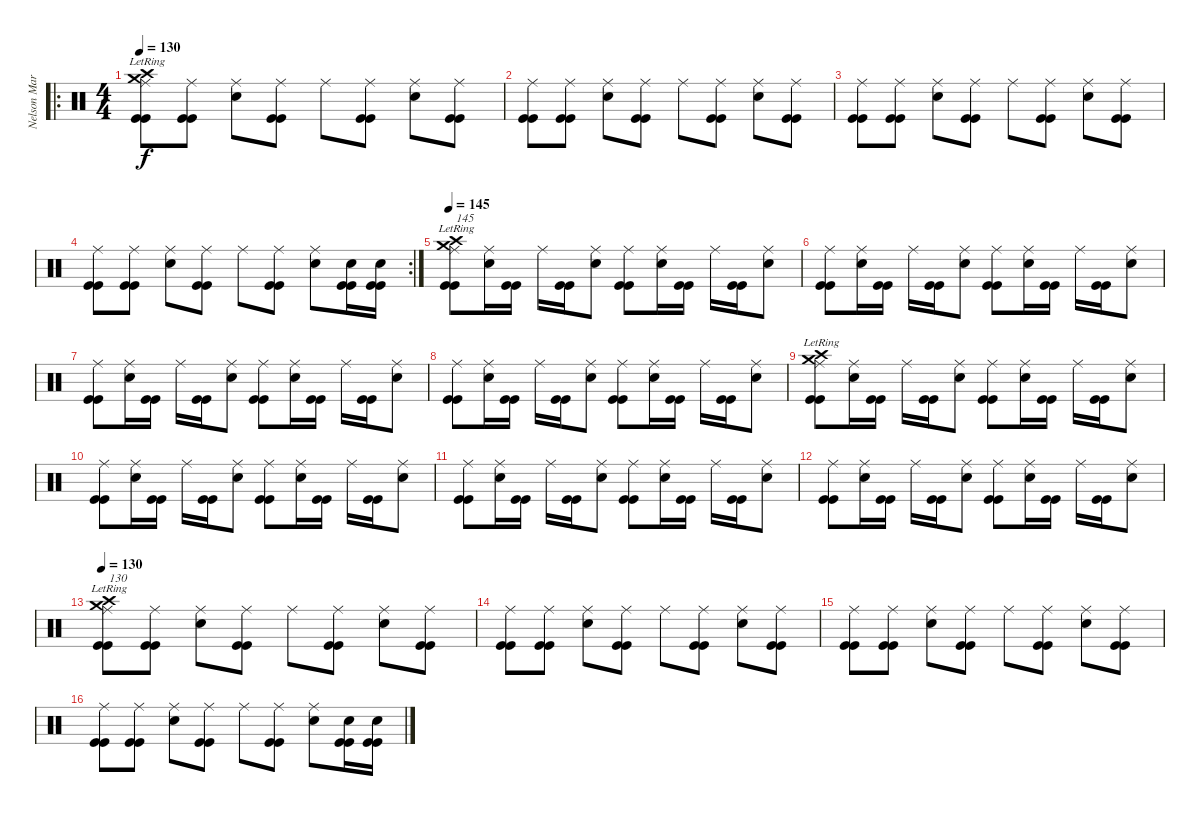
\track ("Nelson Maria" "Nelson Mar") {instrument percussion}
\staff {score}
\articulation defaults
\ro
\ts (4 4)
\tempo 130
\clef neutral
\ks c
("Crash high (hit)"{lr} "Crash medium (hit)"{lr} "Ride (middle)" "Kick (hit)" "Kick (hit)").8{dy f} ("Ride (middle)" "Kick (hit)" "Kick (hit)").8 ("Snare (hit) 2" "Ride (middle)").8 ("Ride (middle)" "Kick (hit)" "Kick (hit)").8 "Ride (middle)".8 ("Ride (middle)" "Kick (hit)" "Kick (hit)").8 ("Snare (hit) 2" "Ride (middle)").8 ("Ride (middle)" "Kick (hit)" "Kick (hit)").8 |
("Ride (middle)" "Kick (hit)" "Kick (hit)").8 ("Ride (middle)" "Kick (hit)" "Kick (hit)").8 ("Snare (hit) 2" "Ride (middle)").8 ("Ride (middle)" "Kick (hit)" "Kick (hit)").8 "Ride (middle)".8 ("Ride (middle)" "Kick (hit)" "Kick (hit)").8 ("Snare (hit) 2" "Ride (middle)").8 ("Ride (middle)" "Kick (hit)" "Kick (hit)").8 |
("Ride (middle)" "Kick (hit)" "Kick (hit)").8 ("Ride (middle)" "Kick (hit)" "Kick (hit)").8 ("Snare (hit) 2" "Ride (middle)").8 ("Ride (middle)" "Kick (hit)" "Kick (hit)").8 "Ride (middle)".8 ("Ride (middle)" "Kick (hit)" "Kick (hit)").8 ("Snare (hit) 2" "Ride (middle)").8 ("Ride (middle)" "Kick (hit)" "Kick (hit)").8 |
\rc 2
("Ride (middle)" "Kick (hit)" "Kick (hit)").8 ("Ride (middle)" "Kick (hit)" "Kick (hit)").8 ("Snare (hit) 2" "Ride (middle)").8 ("Ride (middle)" "Kick (hit)" "Kick (hit)").8 "Ride (middle)".8 ("Ride (middle)" "Kick (hit)" "Kick (hit)").8 ("Snare (hit) 2" "Ride (middle)").8 ("Snare (hit) 2" "Kick (hit)" "Kick (hit)").16 ("Snare (hit) 2" "Kick (hit)" "Kick (hit)").16 |
\tempo 145
("Crash high (hit)"{lr} "Crash medium (hit)"{lr} "Ride (middle)" "Kick (hit)" "Kick (hit)").8{txt "145"} ("Snare (hit) 2" "Ride (middle)").16 ("Kick (hit)" "Kick (hit)").16 "Ride (middle)".16 ("Kick (hit)" "Kick (hit)").16 ("Snare (hit) 2" "Ride (middle)").8 ("Ride (middle)" "Kick (hit)" "Kick (hit)").8 ("Snare (hit) 2" "Ride (middle)").16 ("Kick (hit)" "Kick (hit)").16 "Ride (middle)".16 ("Kick (hit)" "Kick (hit)").16 ("Snare (hit) 2" "Ride (middle)").8 |
("Ride (middle)" "Kick (hit)" "Kick (hit)").8 ("Snare (hit) 2" "Ride (middle)").16 ("Kick (hit)" "Kick (hit)").16 "Ride (middle)".16 ("Kick (hit)" "Kick (hit)").16 ("Snare (hit) 2" "Ride (middle)").8 ("Ride (middle)" "Kick (hit)" "Kick (hit)").8 ("Snare (hit) 2" "Ride (middle)").16 ("Kick (hit)" "Kick (hit)").16 "Ride (middle)".16 ("Kick (hit)" "Kick (hit)").16 ("Snare (hit) 2" "Ride (middle)").8 |
("Ride (middle)" "Kick (hit)" "Kick (hit)").8 ("Snare (hit) 2" "Ride (middle)").16 ("Kick (hit)" "Kick (hit)").16 "Ride (middle)".16 ("Kick (hit)" "Kick (hit)").16 ("Snare (hit) 2" "Ride (middle)").8 ("Ride (middle)" "Kick (hit)" "Kick (hit)").8 ("Snare (hit) 2" "Ride (middle)").16 ("Kick (hit)" "Kick (hit)").16 "Ride (middle)".16 ("Kick (hit)" "Kick (hit)").16 ("Snare (hit) 2" "Ride (middle)").8 |
("Ride (middle)" "Kick (hit)" "Kick (hit)").8 ("Snare (hit) 2" "Ride (middle)").16 ("Kick (hit)" "Kick (hit)").16 "Ride (middle)".16 ("Kick (hit)" "Kick (hit)").16 ("Snare (hit) 2" "Ride (middle)").8 ("Ride (middle)" "Kick (hit)" "Kick (hit)").8 ("Snare (hit) 2" "Ride (middle)").16 ("Kick (hit)" "Kick (hit)").16 "Ride (middle)".16 ("Kick (hit)" "Kick (hit)").16 ("Snare (hit) 2" "Ride (middle)").8 |
("Crash high (hit)"{lr} "Crash medium (hit)"{lr} "Ride (middle)" "Kick (hit)" "Kick (hit)").8 ("Snare (hit) 2" "Ride (middle)").16 ("Kick (hit)" "Kick (hit)").16 "Ride (middle)".16 ("Kick (hit)" "Kick (hit)").16 ("Snare (hit) 2" "Ride (middle)").8 ("Ride (middle)" "Kick (hit)" "Kick (hit)").8 ("Snare (hit) 2" "Ride (middle)").16 ("Kick (hit)" "Kick (hit)").16 "Ride (middle)".16 ("Kick (hit)" "Kick (hit)").16 ("Snare (hit) 2" "Ride (middle)").8 |
("Ride (middle)" "Kick (hit)" "Kick (hit)").8 ("Snare (hit) 2" "Ride (middle)").16 ("Kick (hit)" "Kick (hit)").16 "Ride (middle)".16 ("Kick (hit)" "Kick (hit)").16 ("Snare (hit) 2" "Ride (middle)").8 ("Ride (middle)" "Kick (hit)" "Kick (hit)").8 ("Snare (hit) 2" "Ride (middle)").16 ("Kick (hit)" "Kick (hit)").16 "Ride (middle)".16 ("Kick (hit)" "Kick (hit)").16 ("Snare (hit) 2" "Ride (middle)").8 |
("Ride (middle)" "Kick (hit)" "Kick (hit)").8 ("Snare (hit) 2" "Ride (middle)").16 ("Kick (hit)" "Kick (hit)").16 "Ride (middle)".16 ("Kick (hit)" "Kick (hit)").16 ("Snare (hit) 2" "Ride (middle)").8 ("Ride (middle)" "Kick (hit)" "Kick (hit)").8 ("Snare (hit) 2" "Ride (middle)").16 ("Kick (hit)" "Kick (hit)").16 "Ride (middle)".16 ("Kick (hit)" "Kick (hit)").16 ("Snare (hit) 2" "Ride (middle)").8 |
("Ride (middle)" "Kick (hit)" "Kick (hit)").8 ("Snare (hit) 2" "Ride (middle)").16 ("Kick (hit)" "Kick (hit)").16 "Ride (middle)".16 ("Kick (hit)" "Kick (hit)").16 ("Snare (hit) 2" "Ride (middle)").8 ("Ride (middle)" "Kick (hit)" "Kick (hit)").8 ("Snare (hit) 2" "Ride (middle)").16 ("Kick (hit)" "Kick (hit)").16 "Ride (middle)".16 ("Kick (hit)" "Kick (hit)").16 ("Snare (hit) 2" "Ride (middle)").8 |
\tempo 130
("Crash high (hit)"{lr} "Crash medium (hit)"{lr} "Ride (middle)" "Kick (hit)" "Kick (hit)").8{txt "130"} ("Ride (middle)" "Kick (hit)" "Kick (hit)").8 ("Snare (hit) 2" "Ride (middle)").8 ("Ride (middle)" "Kick (hit)" "Kick (hit)").8 "Ride (middle)".8 ("Ride (middle)" "Kick (hit)" "Kick (hit)").8 ("Snare (hit) 2" "Ride (middle)").8 ("Ride (middle)" "Kick (hit)" "Kick (hit)").8 |
("Ride (middle)" "Kick (hit)" "Kick (hit)").8 ("Ride (middle)" "Kick (hit)" "Kick (hit)").8 ("Snare (hit) 2" "Ride (middle)").8 ("Ride (middle)" "Kick (hit)" "Kick (hit)").8 "Ride (middle)".8 ("Ride (middle)" "Kick (hit)" "Kick (hit)").8 ("Snare (hit) 2" "Ride (middle)").8 ("Ride (middle)" "Kick (hit)" "Kick (hit)").8 |
("Ride (middle)" "Kick (hit)" "Kick (hit)").8 ("Ride (middle)" "Kick (hit)" "Kick (hit)").8 ("Snare (hit) 2" "Ride (middle)").8 ("Ride (middle)" "Kick (hit)" "Kick (hit)").8 "Ride (middle)".8 ("Ride (middle)" "Kick (hit)" "Kick (hit)").8 ("Snare (hit) 2" "Ride (middle)").8 ("Ride (middle)" "Kick (hit)" "Kick (hit)").8 |
("Ride (middle)" "Kick (hit)" "Kick (hit)").8 ("Ride (middle)" "Kick (hit)" "Kick (hit)").8 ("Snare (hit) 2" "Ride (middle)").8 ("Ride (middle)" "Kick (hit)" "Kick (hit)").8 "Ride (middle)".8 ("Ride (middle)" "Kick (hit)" "Kick (hit)").8 ("Snare (hit) 2" "Ride (middle)").8 ("Snare (hit) 2" "Kick (hit)" "Kick (hit)").16 ("Snare (hit) 2" "Kick (hit)" "Kick (hit)").16
